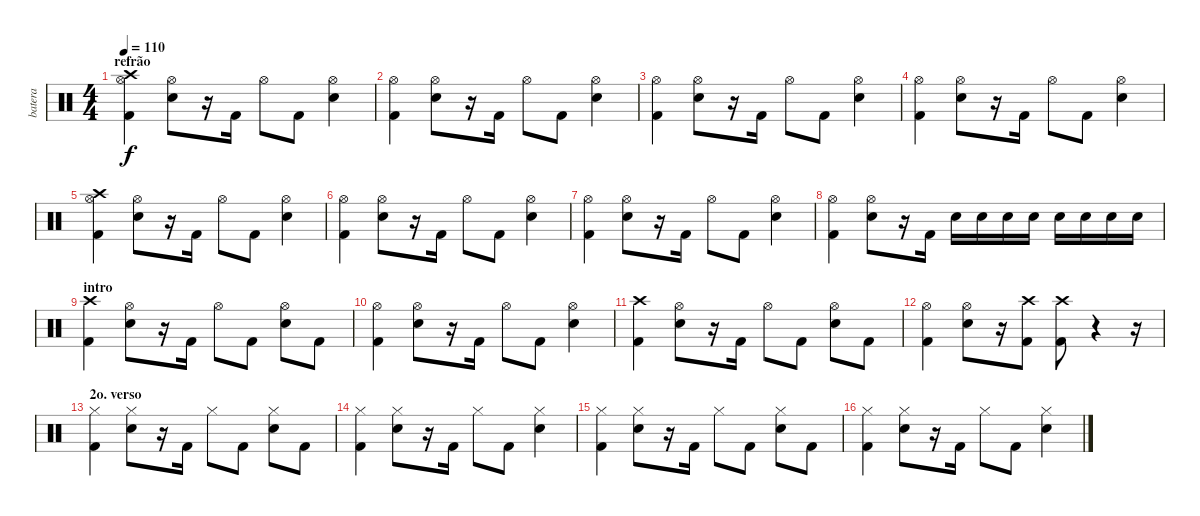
\track ("batera" "batera") {instrument percussion}
\staff {score}
\articulation defaults
\ts (4 4)
\section ("" "refrão")
\tempo 110
\clef neutral
\ks c
("Crash high (hit)" "Kick (hit) 2" "Hi-Hat (open)").4{dy f} ("Snare (hit) 2" "Hi-Hat (open)").8 r.16 "Kick (hit) 2".16 "Hi-Hat (open)".8 "Kick (hit) 2".8 ("Snare (hit) 2" "Hi-Hat (open)").4 |
("Kick (hit) 2" "Hi-Hat (open)").4 ("Snare (hit) 2" "Hi-Hat (open)").8 r.16 "Kick (hit) 2".16 "Hi-Hat (open)".8 "Kick (hit) 2".8 ("Snare (hit) 2" "Hi-Hat (open)").4 |
("Kick (hit) 2" "Hi-Hat (open)").4 ("Snare (hit) 2" "Hi-Hat (open)").8 r.16 "Kick (hit) 2".16 "Hi-Hat (open)".8 "Kick (hit) 2".8 ("Snare (hit) 2" "Hi-Hat (open)").4 |
("Kick (hit) 2" "Hi-Hat (open)").4 ("Snare (hit) 2" "Hi-Hat (open)").8 r.16 "Kick (hit) 2".16 "Hi-Hat (open)".8 "Kick (hit) 2".8 ("Snare (hit) 2" "Hi-Hat (open)").4 |
("Crash high (hit)" "Kick (hit) 2" "Hi-Hat (open)").4 ("Snare (hit) 2" "Hi-Hat (open)").8 r.16 "Kick (hit) 2".16 "Hi-Hat (open)".8 "Kick (hit) 2".8 ("Snare (hit) 2" "Hi-Hat (open)").4 |
("Kick (hit) 2" "Hi-Hat (open)").4 ("Snare (hit) 2" "Hi-Hat (open)").8 r.16 "Kick (hit) 2".16 "Hi-Hat (open)".8 "Kick (hit) 2".8 ("Snare (hit) 2" "Hi-Hat (open)").4 |
("Kick (hit) 2" "Hi-Hat (open)").4 ("Snare (hit) 2" "Hi-Hat (open)").8 r.16 "Kick (hit) 2".16 "Hi-Hat (open)".8 "Kick (hit) 2".8 ("Snare (hit) 2" "Hi-Hat (open)").4 |
("Kick (hit) 2" "Hi-Hat (open)").4 ("Snare (hit) 2" "Hi-Hat (open)").8 r.16 "Kick (hit) 2".16 "Snare (hit) 2".16 "Snare (hit) 2".16 "Snare (hit) 2".16 "Snare (hit) 2".16 "Snare (hit) 2".16 "Snare (hit) 2".16 "Snare (hit) 2".16 "Snare (hit) 2".16 |
\section ("" "intro")
("Crash high (hit)" "Kick (hit) 2").4 ("Snare (hit) 2" "Hi-Hat (open)").8 r.16 "Kick (hit) 2".16 "Hi-Hat (open)".8 "Kick (hit) 2".8 ("Snare (hit) 2" "Hi-Hat (open)").8 "Kick (hit) 2".8 |
("Kick (hit) 2" "Hi-Hat (open)").4 ("Snare (hit) 2" "Hi-Hat (open)").8 r.16 "Kick (hit) 2".16 "Hi-Hat (open)".8 "Kick (hit) 2".8 ("Snare (hit) 2" "Hi-Hat (open)").4 |
("Crash high (hit)" "Kick (hit) 2").4 ("Snare (hit) 2" "Hi-Hat (open)").8 r.16 "Kick (hit) 2".16 "Hi-Hat (open)".8 "Kick (hit) 2".8 ("Snare (hit) 2" "Hi-Hat (open)").8 "Kick (hit) 2".8 |
("Kick (hit) 2" "Hi-Hat (open)").4 ("Snare (hit) 2" "Hi-Hat (open)").8 r.16 ("Crash high (hit)" "Kick (hit) 2").8 ("Crash high (hit)" "Kick (hit) 2").8 r.4 r.16 |
\section ("" "2o. verso")
("Kick (hit) 2" "Hi-Hat (closed)").4 ("Snare (hit) 2" "Hi-Hat (closed)").8 r.16 "Kick (hit) 2".16 "Hi-Hat (closed)".8 "Kick (hit) 2".8 ("Snare (hit) 2" "Hi-Hat (closed)").8 "Kick (hit) 2".8 |
("Kick (hit) 2" "Hi-Hat (closed)").4 ("Snare (hit) 2" "Hi-Hat (closed)").8 r.16 "Kick (hit) 2".16 "Hi-Hat (closed)".8 "Kick (hit) 2".8 ("Snare (hit) 2" "Hi-Hat (closed)").4 |
("Kick (hit) 2" "Hi-Hat (closed)").4 ("Snare (hit) 2" "Hi-Hat (closed)").8 r.16 "Kick (hit) 2".16 "Hi-Hat (closed)".8 "Kick (hit) 2".8 ("Snare (hit) 2" "Hi-Hat (closed)").8 "Kick (hit) 2".8 |
("Kick (hit) 2" "Hi-Hat (closed)").4 ("Snare (hit) 2" "Hi-Hat (closed)").8 r.16 "Kick (hit) 2".16 "Hi-Hat (closed)".8 "Kick (hit) 2".8 ("Snare (hit) 2" "Hi-Hat (closed)").4
